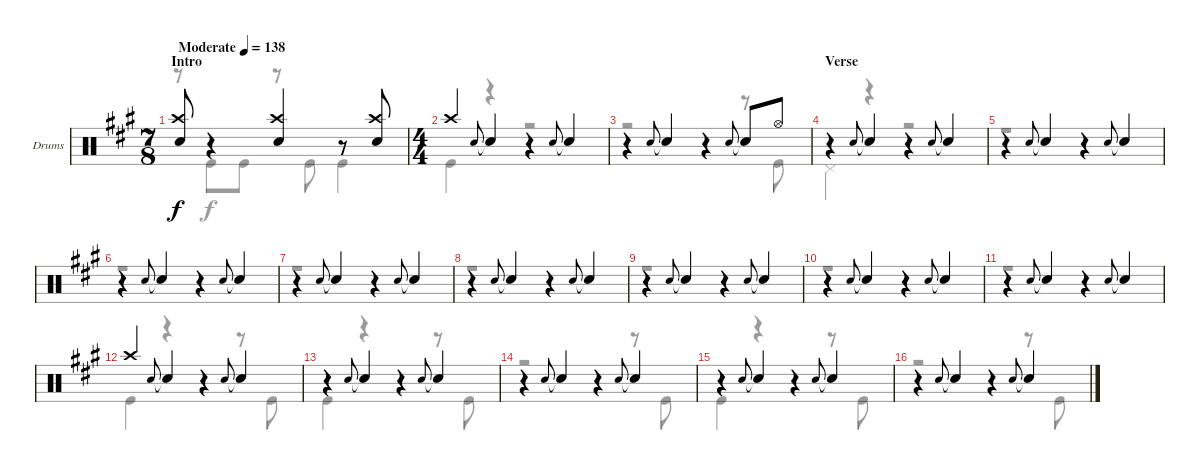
\defaultSystemsLayout 4
\bracketExtendMode groupsimilarinstruments
\firstSystemTrackNameOrientation horizontal
\otherSystemsTrackNameOrientation horizontal
\track ("Drumkit" "Drums") {instrument percussion}
\staff {score}
\articulation defaults
\voice
\ts (7 8)
\section ("" "Intro")
\tempo (138 "Moderate")
\clef neutral
\ks a
("Crash high (hit)" "Snare (hit) 2").8{dy f} r.4 ("Crash high (hit)" "Snare (hit) 2").4 r.8 ("Crash high (hit)" "Snare (hit) 2").8 |
\ts (4 4)
"Crash high (hit)".4 "Snare (hit) 2".8{gr onbeat} "Snare (hit) 2"{t}.4 r.4 "Snare (hit) 2".8{gr onbeat} "Snare (hit) 2"{t}.4 |
r.4 "Snare (hit) 2".8{gr onbeat} "Snare (hit) 2"{t}.4 r.4 "Snare (hit) 2".8{gr onbeat} "Snare (hit) 2"{t}.8 "Hi-Hat (open)".8 |
\section ("" "Verse")
r.4 "Snare (hit) 2".8{gr onbeat} "Snare (hit) 2"{t}.4 r.4 "Snare (hit) 2".8{gr onbeat} "Snare (hit) 2"{t}.4 |
r.4 "Snare (hit) 2".8{gr onbeat} "Snare (hit) 2"{t}.4 r.4 "Snare (hit) 2".8{gr onbeat} "Snare (hit) 2"{t}.4 |
r.4 "Snare (hit) 2".8{gr onbeat} "Snare (hit) 2"{t}.4 r.4 "Snare (hit) 2".8{gr onbeat} "Snare (hit) 2"{t}.4 |
r.4 "Snare (hit) 2".8{gr onbeat} "Snare (hit) 2"{t}.4 r.4 "Snare (hit) 2".8{gr onbeat} "Snare (hit) 2"{t}.4 |
r.4 "Snare (hit) 2".8{gr onbeat} "Snare (hit) 2"{t}.4 r.4 "Snare (hit) 2".8{gr onbeat} "Snare (hit) 2"{t}.4 |
r.4 "Snare (hit) 2".8{gr onbeat} "Snare (hit) 2"{t}.4 r.4 "Snare (hit) 2".8{gr onbeat} "Snare (hit) 2"{t}.4 |
r.4 "Snare (hit) 2".8{gr onbeat} "Snare (hit) 2"{t}.4 r.4 "Snare (hit) 2".8{gr onbeat} "Snare (hit) 2"{t}.4 |
r.4 "Snare (hit) 2".8{gr onbeat} "Snare (hit) 2"{t}.4 r.4 "Snare (hit) 2".8{gr onbeat} "Snare (hit) 2"{t}.4 |
"Crash high (hit)".4 "Snare (hit) 2".8{gr onbeat} "Snare (hit) 2"{t}.4 r.4 "Snare (hit) 2".8{gr onbeat} "Snare (hit) 2"{t}.4 |
r.4 "Snare (hit) 2".8{gr onbeat} "Snare (hit) 2"{t}.4 r.4 "Snare (hit) 2".8{gr onbeat} "Snare (hit) 2"{t}.4 |
r.4 "Snare (hit) 2".8{gr onbeat} "Snare (hit) 2"{t}.4 r.4 "Snare (hit) 2".8{gr onbeat} "Snare (hit) 2"{t}.4 |
r.4 "Snare (hit) 2".8{gr onbeat} "Snare (hit) 2"{t}.4 r.4 "Snare (hit) 2".8{gr onbeat} "Snare (hit) 2"{t}.4 |
r.4 "Snare (hit) 2".8{gr onbeat} "Snare (hit) 2"{t}.4 r.4 "Snare (hit) 2".8{gr onbeat} "Snare (hit) 2"{t}.4
\voice
\clef neutral
\ottava regular
\simile none
\ks a
r.8{dy f} "Kick (hit)".8 "Kick (hit)".8 r.8 "Kick (hit)".8 "Kick (hit)".4 |
"Kick (hit)".4 r.4 r.2 |
r.2 r.4 r.8 "Kick (hit)".8 |
"Pedal Hi-Hat (hit)".4 r.4 r.2 |
r.1 |
r.1 |
r.1 |
r.1 |
r.1 |
r.1 |
r.1 |
"Kick (hit)".4 r.4 r.4 r.8 "Kick (hit)".8 |
"Kick (hit)".4 r.4 r.4 r.8 "Kick (hit)".8 |
r.2 r.4 r.8 "Kick (hit)".8 |
"Kick (hit)".4 r.4 r.4 r.8 "Kick (hit)".8 |
r.2 r.4 r.8 "Kick (hit)".8
